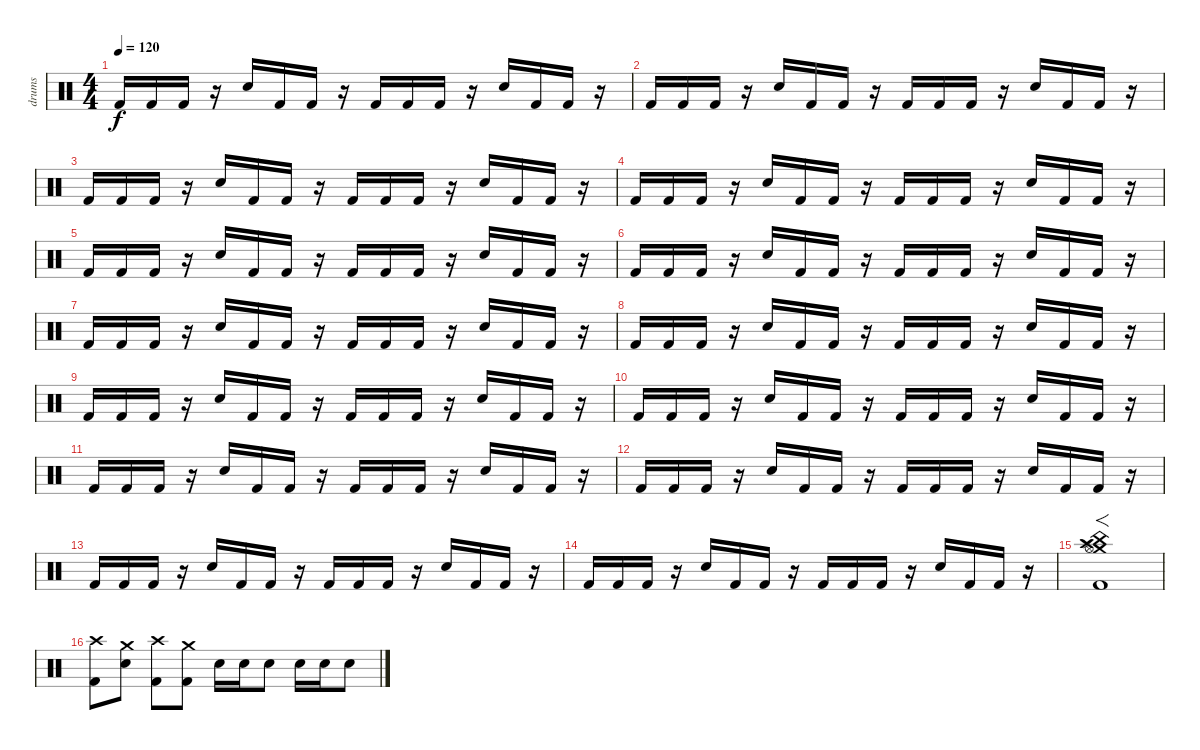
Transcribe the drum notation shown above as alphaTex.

\track ("drums" "drums") {instrument percussion}
\staff {score}
\articulation defaults
\ts (4 4)
\tempo 120
\clef neutral
\ks c "Kick (hit) 2".16{dy f} "Kick (hit) 2".16 "Kick (hit) 2".16
r.16 "Electric Snare (hit)".16 "Kick (hit) 2".16 "Kick (hit) 2".16 r.16 "Kick (hit) 2".16 "Kick (hit) 2".16 "Kick (hit) 2".16 r.16 "Electric Snare (hit)".16 "Kick (hit) 2".16 "Kick (hit) 2".16 r.16 |
"Kick (hit) 2".16 "Kick (hit) 2".16 "Kick (hit) 2".16 r.16 "Electric Snare (hit)".16 "Kick (hit) 2".16 "Kick (hit) 2".16 r.16 "Kick (hit) 2".16 "Kick (hit) 2".16 "Kick (hit) 2".16 r.16 "Electric Snare (hit)".16 "Kick (hit) 2".16 "Kick (hit) 2".16 r.16 |
"Kick (hit) 2".16 "Kick (hit) 2".16 "Kick (hit) 2".16 r.16 "Electric Snare (hit)".16 "Kick (hit) 2".16 "Kick (hit) 2".16 r.16 "Kick (hit) 2".16 "Kick (hit) 2".16 "Kick (hit) 2".16 r.16 "Electric Snare (hit)".16 "Kick (hit) 2".16 "Kick (hit) 2".16 r.16 |
"Kick (hit) 2".16 "Kick (hit) 2".16 "Kick (hit) 2".16 r.16 "Electric Snare (hit)".16 "Kick (hit) 2".16 "Kick (hit) 2".16 r.16 "Kick (hit) 2".16 "Kick (hit) 2".16 "Kick (hit) 2".16 r.16 "Electric Snare (hit)".16 "Kick (hit) 2".16 "Kick (hit) 2".16 r.16 |
"Kick (hit) 2".16 "Kick (hit) 2".16 "Kick (hit) 2".16 r.16 "Electric Snare (hit)".16 "Kick (hit) 2".16 "Kick (hit) 2".16 r.16 "Kick (hit) 2".16 "Kick (hit) 2".16 "Kick (hit) 2".16 r.16 "Electric Snare (hit)".16 "Kick (hit) 2".16 "Kick (hit) 2".16 r.16 |
"Kick (hit) 2".16 "Kick (hit) 2".16 "Kick (hit) 2".16 r.16 "Electric Snare (hit)".16 "Kick (hit) 2".16 "Kick (hit) 2".16 r.16 "Kick (hit) 2".16 "Kick (hit) 2".16 "Kick (hit) 2".16 r.16 "Electric Snare (hit)".16 "Kick (hit) 2".16 "Kick (hit) 2".16 r.16 |
"Kick (hit) 2".16 "Kick (hit) 2".16 "Kick (hit) 2".16 r.16 "Electric Snare (hit)".16 "Kick (hit) 2".16 "Kick (hit) 2".16 r.16 "Kick (hit) 2".16 "Kick (hit) 2".16 "Kick (hit) 2".16 r.16 "Electric Snare (hit)".16 "Kick (hit) 2".16 "Kick (hit) 2".16 r.16 |
"Kick (hit) 2".16 "Kick (hit) 2".16 "Kick (hit) 2".16 r.16 "Electric Snare (hit)".16 "Kick (hit) 2".16 "Kick (hit) 2".16 r.16 "Kick (hit) 2".16 "Kick (hit) 2".16 "Kick (hit) 2".16 r.16 "Electric Snare (hit)".16 "Kick (hit) 2".16 "Kick (hit) 2".16 r.16 |
"Kick (hit) 2".16 "Kick (hit) 2".16 "Kick (hit) 2".16 r.16 "Electric Snare (hit)".16 "Kick (hit) 2".16 "Kick (hit) 2".16 r.16 "Kick (hit) 2".16 "Kick (hit) 2".16 "Kick (hit) 2".16 r.16 "Electric Snare (hit)".16 "Kick (hit) 2".16 "Kick (hit) 2".16 r.16 |
"Kick (hit) 2".16 "Kick (hit) 2".16 "Kick (hit) 2".16 r.16 "Electric Snare (hit)".16 "Kick (hit) 2".16 "Kick (hit) 2".16 r.16 "Kick (hit) 2".16 "Kick (hit) 2".16 "Kick (hit) 2".16 r.16 "Electric Snare (hit)".16 "Kick (hit) 2".16 "Kick (hit) 2".16 r.16 |
"Kick (hit) 2".16 "Kick (hit) 2".16 "Kick (hit) 2".16 r.16 "Electric Snare (hit)".16 "Kick (hit) 2".16 "Kick (hit) 2".16 r.16 "Kick (hit) 2".16 "Kick (hit) 2".16 "Kick (hit) 2".16 r.16 "Electric Snare (hit)".16 "Kick (hit) 2".16 "Kick (hit) 2".16 r.16 |
"Kick (hit) 2".16 "Kick (hit) 2".16 "Kick (hit) 2".16 r.16 "Electric Snare (hit)".16 "Kick (hit) 2".16 "Kick (hit) 2".16 r.16 "Kick (hit) 2".16 "Kick (hit) 2".16 "Kick (hit) 2".16 r.16 "Electric Snare (hit)".16 "Kick (hit) 2".16 "Kick (hit) 2".16 r.16 |
"Kick (hit) 2".16 "Kick (hit) 2".16 "Kick (hit) 2".16 r.16 "Electric Snare (hit)".16 "Kick (hit) 2".16 "Kick (hit) 2".16 r.16 "Kick (hit) 2".16 "Kick (hit) 2".16 "Kick (hit) 2".16 r.16 "Electric Snare (hit)".16 "Kick (hit) 2".16 "Kick (hit) 2".16 r.16 |
"Kick (hit) 2".16 "Kick (hit) 2".16 "Kick (hit) 2".16 r.16 "Electric Snare (hit)".16 "Kick (hit) 2".16 "Kick (hit) 2".16 r.16 "Kick (hit) 2".16 "Kick (hit) 2".16 "Kick (hit) 2".16 r.16 "Electric Snare (hit)".16 "Kick (hit) 2".16 "Kick (hit) 2".16 r.16 |
("Splash (hit)" "Crash medium (hit)" "Crash high (hit)" "Hi-Hat (open)" "China (hit)" "Kick (hit) 2").1{f} |
("Crash high (hit)" "Kick (hit) 2").8 ("Crash medium (hit)" "Electric Snare (hit)").8 ("Crash high (hit)" "Kick (hit) 2").8 ("Crash medium (hit)" "Kick (hit) 2").8 "Electric Snare (hit)".16 "Electric Snare (hit)".16 "Electric Snare (hit)".8 "Electric Snare (hit)".16 "Electric Snare (hit)".16 "Electric Snare (hit)".8
